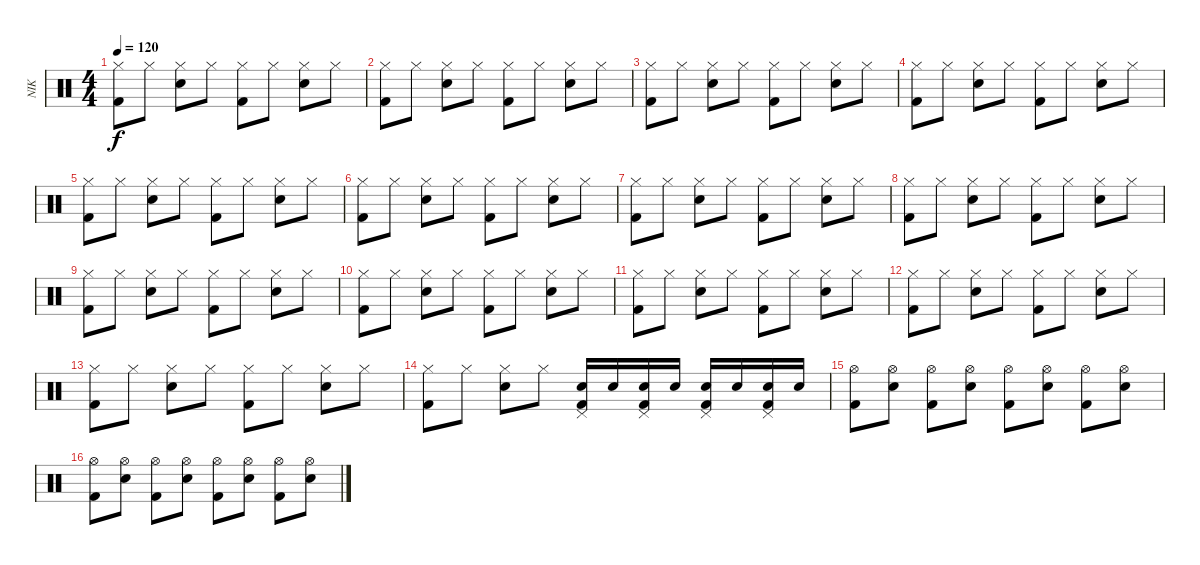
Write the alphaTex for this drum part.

\track ("NIK" "NIK") {instrument percussion}
\staff {score}
\articulation defaults
\ts (4 4)
\tempo 120
\clef neutral
\ks c
("Hi-Hat (closed)" "Kick (hit) 2").8{dy f} "Hi-Hat (closed)".8 ("Hi-Hat (closed)" "Electric Snare (hit)").8 "Hi-Hat (closed)".8 ("Hi-Hat (closed)" "Kick (hit) 2").8 "Hi-Hat (closed)".8 ("Hi-Hat (closed)" "Electric Snare (hit)").8 "Hi-Hat (closed)".8 |
("Hi-Hat (closed)" "Kick (hit) 2").8 "Hi-Hat (closed)".8 ("Hi-Hat (closed)" "Electric Snare (hit)").8 "Hi-Hat (closed)".8 ("Hi-Hat (closed)" "Kick (hit) 2").8 "Hi-Hat (closed)".8 ("Hi-Hat (closed)" "Electric Snare (hit)").8 "Hi-Hat (closed)".8 |
("Hi-Hat (closed)" "Kick (hit) 2").8 "Hi-Hat (closed)".8 ("Hi-Hat (closed)" "Electric Snare (hit)").8 "Hi-Hat (closed)".8 ("Hi-Hat (closed)" "Kick (hit) 2").8 "Hi-Hat (closed)".8 ("Hi-Hat (closed)" "Electric Snare (hit)").8 "Hi-Hat (closed)".8 |
("Hi-Hat (closed)" "Kick (hit) 2").8 "Hi-Hat (closed)".8 ("Hi-Hat (closed)" "Electric Snare (hit)").8 "Hi-Hat (closed)".8 ("Hi-Hat (closed)" "Kick (hit) 2").8 "Hi-Hat (closed)".8 ("Hi-Hat (closed)" "Electric Snare (hit)").8 "Hi-Hat (closed)".8 |
("Hi-Hat (closed)" "Kick (hit) 2").8 "Hi-Hat (closed)".8 ("Hi-Hat (closed)" "Electric Snare (hit)").8 "Hi-Hat (closed)".8 ("Hi-Hat (closed)" "Kick (hit) 2").8 "Hi-Hat (closed)".8 ("Hi-Hat (closed)" "Electric Snare (hit)").8 "Hi-Hat (closed)".8 |
("Hi-Hat (closed)" "Kick (hit) 2").8 "Hi-Hat (closed)".8 ("Hi-Hat (closed)" "Electric Snare (hit)").8 "Hi-Hat (closed)".8 ("Hi-Hat (closed)" "Kick (hit) 2").8 "Hi-Hat (closed)".8 ("Hi-Hat (closed)" "Electric Snare (hit)").8 "Hi-Hat (closed)".8 |
("Hi-Hat (closed)" "Kick (hit) 2").8 "Hi-Hat (closed)".8 ("Hi-Hat (closed)" "Electric Snare (hit)").8 "Hi-Hat (closed)".8 ("Hi-Hat (closed)" "Kick (hit) 2").8 "Hi-Hat (closed)".8 ("Hi-Hat (closed)" "Electric Snare (hit)").8 "Hi-Hat (closed)".8 |
("Hi-Hat (closed)" "Kick (hit) 2").8 "Hi-Hat (closed)".8 ("Hi-Hat (closed)" "Electric Snare (hit)").8 "Hi-Hat (closed)".8 ("Hi-Hat (closed)" "Kick (hit) 2").8 "Hi-Hat (closed)".8 ("Hi-Hat (closed)" "Electric Snare (hit)").8 "Hi-Hat (closed)".8 |
("Hi-Hat (closed)" "Kick (hit) 2").8 "Hi-Hat (closed)".8 ("Hi-Hat (closed)" "Electric Snare (hit)").8 "Hi-Hat (closed)".8 ("Hi-Hat (closed)" "Kick (hit) 2").8 "Hi-Hat (closed)".8 ("Hi-Hat (closed)" "Electric Snare (hit)").8 "Hi-Hat (closed)".8 |
("Hi-Hat (closed)" "Kick (hit) 2").8 "Hi-Hat (closed)".8 ("Hi-Hat (closed)" "Electric Snare (hit)").8 "Hi-Hat (closed)".8 ("Hi-Hat (closed)" "Kick (hit) 2").8 "Hi-Hat (closed)".8 ("Hi-Hat (closed)" "Electric Snare (hit)").8 "Hi-Hat (closed)".8 |
("Hi-Hat (closed)" "Kick (hit) 2").8 "Hi-Hat (closed)".8 ("Hi-Hat (closed)" "Electric Snare (hit)").8 "Hi-Hat (closed)".8 ("Hi-Hat (closed)" "Kick (hit) 2").8 "Hi-Hat (closed)".8 ("Hi-Hat (closed)" "Electric Snare (hit)").8 "Hi-Hat (closed)".8 |
("Hi-Hat (closed)" "Kick (hit) 2").8 "Hi-Hat (closed)".8 ("Hi-Hat (closed)" "Electric Snare (hit)").8 "Hi-Hat (closed)".8 ("Hi-Hat (closed)" "Kick (hit) 2").8 "Hi-Hat (closed)".8 ("Hi-Hat (closed)" "Electric Snare (hit)").8 "Hi-Hat (closed)".8 |
("Hi-Hat (closed)" "Kick (hit) 2").8 "Hi-Hat (closed)".8 ("Hi-Hat (closed)" "Electric Snare (hit)").8 "Hi-Hat (closed)".8 ("Hi-Hat (closed)" "Kick (hit) 2").8 "Hi-Hat (closed)".8 ("Hi-Hat (closed)" "Electric Snare (hit)").8 "Hi-Hat (closed)".8 |
("Hi-Hat (closed)" "Kick (hit) 2").8 "Hi-Hat (closed)".8 ("Hi-Hat (closed)" "Electric Snare (hit)").8 "Hi-Hat (closed)".8 ("Electric Snare (hit)" "Kick (hit) 2" "Pedal Hi-Hat (hit)").16 "Electric Snare (hit)".16 ("Electric Snare (hit)" "Kick (hit) 2" "Pedal Hi-Hat (hit)").16 "Electric Snare (hit)".16 ("Electric Snare (hit)" "Kick (hit) 2" "Pedal Hi-Hat (hit)").16 "Electric Snare (hit)".16 ("Electric Snare (hit)" "Kick (hit) 2" "Pedal Hi-Hat (hit)").16 "Electric Snare (hit)".16 |
("Hi-Hat (open)" "Kick (hit) 2").8 ("Hi-Hat (open)" "Electric Snare (hit)").8 ("Hi-Hat (open)" "Kick (hit) 2").8 ("Hi-Hat (open)" "Electric Snare (hit)").8 ("Hi-Hat (open)" "Kick (hit) 2").8 ("Hi-Hat (open)" "Electric Snare (hit)").8 ("Hi-Hat (open)" "Kick (hit) 2").8 ("Hi-Hat (open)" "Electric Snare (hit)").8 |
("Hi-Hat (open)" "Kick (hit) 2").8 ("Hi-Hat (open)" "Electric Snare (hit)").8 ("Hi-Hat (open)" "Kick (hit) 2").8 ("Hi-Hat (open)" "Electric Snare (hit)").8 ("Hi-Hat (open)" "Kick (hit) 2").8 ("Hi-Hat (open)" "Electric Snare (hit)").8 ("Hi-Hat (open)" "Kick (hit) 2").8 ("Hi-Hat (open)" "Electric Snare (hit)").8
